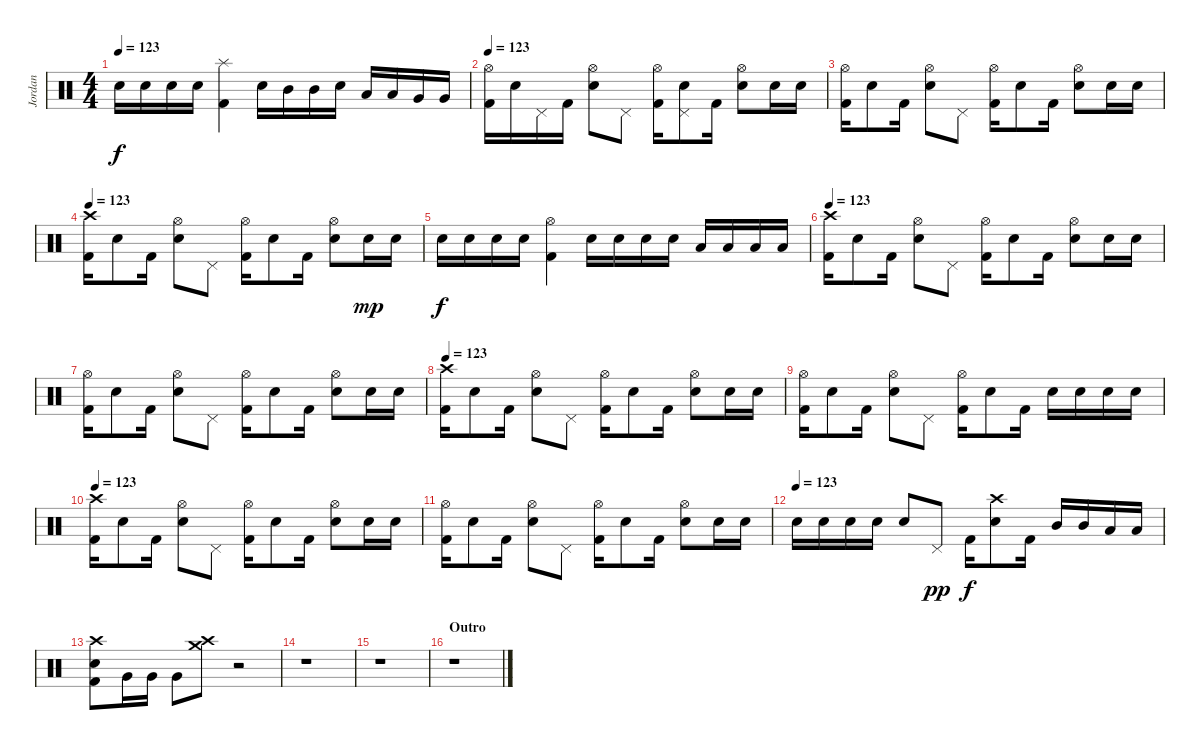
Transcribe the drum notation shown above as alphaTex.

\track ("Jordan" "Jordan") {instrument percussion}
\staff {score}
\articulation defaults
\ts (4 4)
\tempo 123
\clef neutral
\ks c "Electric Snare (hit)".16{dy f} "Electric Snare (hit)".16 "Electric Snare (hit)".16 "Electric Snare (hit)".16
("Splash (hit)" "Kick (hit) 2").4 "Electric Snare (hit)".16 "Mid Tom (hit)".16 "Mid Tom (hit)".16 "Electric Snare (hit)".16 "Low Tom (hit)".16 "Low Tom (hit)".16 "Very Low Tom (hit)".16 "Very Low Tom (hit)".16 |
\tempo 123
("Hi-Hat (open)" "Kick (hit) 2").16 "Electric Snare (hit)".16 "Pedal Hi-Hat (hit)".16 "Kick (hit) 2".16 ("Hi-Hat (open)" "Electric Snare (hit)").8 "Pedal Hi-Hat (hit)".8 ("Hi-Hat (open)" "Kick (hit) 2").16 ("Electric Snare (hit)" "Pedal Hi-Hat (hit)").8 "Kick (hit) 2".16 ("Hi-Hat (open)" "Electric Snare (hit)").8 "Electric Snare (hit)".16 "Electric Snare (hit)".16 |
("Hi-Hat (open)" "Kick (hit) 2").16 "Electric Snare (hit)".8 "Kick (hit) 2".16 ("Hi-Hat (open)" "Electric Snare (hit)").8 "Pedal Hi-Hat (hit)".8 ("Hi-Hat (open)" "Kick (hit) 2").16 "Electric Snare (hit)".8 "Kick (hit) 2".16 ("Hi-Hat (open)" "Electric Snare (hit)").8 "Electric Snare (hit)".16 "Electric Snare (hit)".16 |
\tempo 123
("Crash high (hit)" "Kick (hit) 2").16 "Electric Snare (hit)".8 "Kick (hit) 2".16 ("Hi-Hat (open)" "Electric Snare (hit)").8 "Pedal Hi-Hat (hit)".8 ("Hi-Hat (open)" "Kick (hit) 2").16 "Electric Snare (hit)".8 "Kick (hit) 2".16 ("Hi-Hat (open)" "Electric Snare (hit)").8 "Electric Snare (hit)".16{dy mp} "Electric Snare (hit)".16 |
"Electric Snare (hit)".16{dy f} "Electric Snare (hit)".16 "Electric Snare (hit)".16 "Electric Snare (hit)".16 ("Hi-Hat (open)" "Kick (hit) 2").4 "Electric Snare (hit)".16 "Electric Snare (hit)".16 "Electric Snare (hit)".16 "Electric Snare (hit)".16 "Low Tom (hit)".16 "Low Tom (hit)".16 "Low Tom (hit)".16 "Low Tom (hit)".16 |
\tempo 123
("Crash high (hit)" "Kick (hit) 2").16 "Electric Snare (hit)".8 "Kick (hit) 2".16 ("Hi-Hat (open)" "Electric Snare (hit)").8 "Pedal Hi-Hat (hit)".8 ("Hi-Hat (open)" "Kick (hit) 2").16 "Electric Snare (hit)".8 "Kick (hit) 2".16 ("Hi-Hat (open)" "Electric Snare (hit)").8 "Electric Snare (hit)".16 "Electric Snare (hit)".16 |
("Hi-Hat (open)" "Kick (hit) 2").16 "Electric Snare (hit)".8 "Kick (hit) 2".16 ("Hi-Hat (open)" "Electric Snare (hit)").8 "Pedal Hi-Hat (hit)".8 ("Hi-Hat (open)" "Kick (hit) 2").16 "Electric Snare (hit)".8 "Kick (hit) 2".16 ("Hi-Hat (open)" "Electric Snare (hit)").8 "Electric Snare (hit)".16 "Electric Snare (hit)".16 |
\tempo 123
("Crash high (hit)" "Kick (hit) 2").16 "Electric Snare (hit)".8 "Kick (hit) 2".16 ("Hi-Hat (open)" "Electric Snare (hit)").8 "Pedal Hi-Hat (hit)".8 ("Hi-Hat (open)" "Kick (hit) 2").16 "Electric Snare (hit)".8 "Kick (hit) 2".16 ("Hi-Hat (open)" "Electric Snare (hit)").8 "Electric Snare (hit)".16 "Electric Snare (hit)".16 |
("Hi-Hat (open)" "Kick (hit) 2").16 "Electric Snare (hit)".8 "Kick (hit) 2".16 ("Hi-Hat (open)" "Electric Snare (hit)").8 "Pedal Hi-Hat (hit)".8 ("Hi-Hat (open)" "Kick (hit) 2").16 "Electric Snare (hit)".8 "Kick (hit) 2".16 "Electric Snare (hit)".16 "Electric Snare (hit)".16 "Electric Snare (hit)".16 "Electric Snare (hit)".16 |
\tempo 123
("Crash high (hit)" "Kick (hit) 2").16 "Electric Snare (hit)".8 "Kick (hit) 2".16 ("Hi-Hat (open)" "Electric Snare (hit)").8 "Pedal Hi-Hat (hit)".8 ("Hi-Hat (open)" "Kick (hit) 2").16 "Electric Snare (hit)".8 "Kick (hit) 2".16 ("Hi-Hat (open)" "Electric Snare (hit)").8 "Electric Snare (hit)".16 "Electric Snare (hit)".16 |
("Hi-Hat (open)" "Kick (hit) 2").16 "Electric Snare (hit)".8 "Kick (hit) 2".16 ("Hi-Hat (open)" "Electric Snare (hit)").8 "Pedal Hi-Hat (hit)".8 ("Hi-Hat (open)" "Kick (hit) 2").16 "Electric Snare (hit)".8 "Kick (hit) 2".16 ("Hi-Hat (open)" "Electric Snare (hit)").8 "Electric Snare (hit)".16 "Electric Snare (hit)".16 |
\tempo (123)
"Electric Snare (hit)".16 "Electric Snare (hit)".16 "Electric Snare (hit)".16 "Electric Snare (hit)".16 "Electric Snare (hit)".8 "Pedal Hi-Hat (hit)".8{dy pp} "Kick (hit) 2".16{dy f} ("Crash high (hit)" "Electric Snare (hit)").8 "Kick (hit) 2".16 "Mid Tom (hit)".16 "Mid Tom (hit)".16 "Low Tom (hit)".16 "Low Tom (hit)".16 |
("Crash high (hit)" "Electric Snare (hit)" "Kick (hit) 2").8 "Very Low Tom (hit)".16 "Very Low Tom (hit)".16 "Very Low Tom (hit)".8 ("Crash high (hit)" "Crash medium (hit)").8 r.2 |
r.1 |
r.1 |
\section ("" "Outro")
r.1
